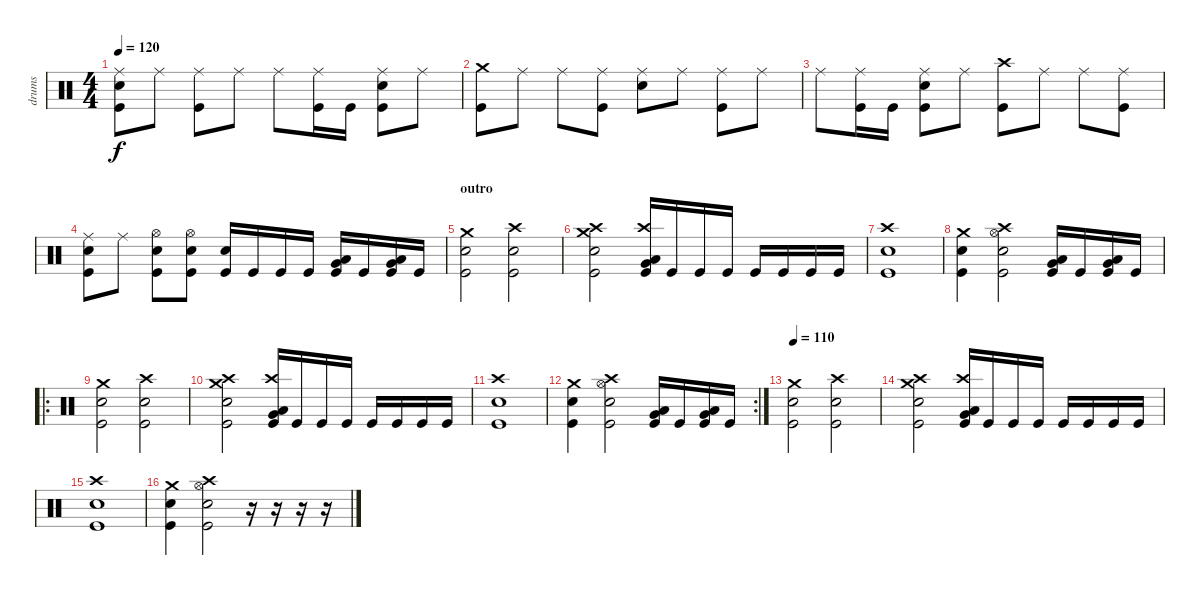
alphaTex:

\track ("drums" "drums") {instrument percussion}
\staff {score}
\articulation defaults
\ts (4 4)
\tempo 120
\clef neutral
\ks c
("Kick (hit)" "Snare (hit) 2" "Ride (middle)").8{dy f} "Ride (middle)".8 ("Kick (hit)" "Ride (middle)").8 "Ride (middle)".8 "Ride (middle)".8 ("Kick (hit)" "Ride (middle)").16 "Kick (hit)".16 ("Kick (hit)" "Snare (hit) 2" "Ride (middle)").8 "Ride (middle)".8 |
("Kick (hit)" "Crash medium (hit)").8 "Ride (middle)".8 "Ride (middle)".8 ("Kick (hit)" "Ride (middle)").8 ("Snare (hit) 2" "Ride (middle)").8 "Ride (middle)".8 ("Kick (hit)" "Ride (middle)").8 "Ride (middle)".8 |
"Ride (middle)".8 ("Kick (hit)" "Ride (middle)").16 "Kick (hit)".16 ("Kick (hit)" "Snare (hit) 2" "Ride (middle)").8 "Ride (middle)".8 ("Kick (hit)" "Crash high (hit)").8 "Ride (middle)".8 "Ride (middle)".8 ("Kick (hit)" "Ride (middle)").8 |
("Kick (hit)" "Snare (hit) 2" "Ride (middle)").8 "Ride (middle)".8 ("Kick (hit)" "Snare (hit) 2" "Hi-Hat (open)").8 ("Kick (hit)" "Snare (hit) 2" "Hi-Hat (open)").8 ("Kick (hit)" "Snare (hit) 2").16 "Kick (hit)".16 "Kick (hit)".16 "Kick (hit)".16 ("Kick (hit)" "Low Tom (hit)" "Very Low Tom (hit)").16 "Kick (hit)".16 ("Kick (hit)" "Low Tom (hit)" "Very Low Tom (hit)").16 "Kick (hit)".16 |
\section ("" "outro")
("Kick (hit)" "Snare (hit) 2" "Crash medium (hit)").2 ("Kick (hit)" "Snare (hit) 2" "Crash high (hit)").2 |
("Kick (hit)" "Snare (hit) 2" "Crash high (hit)" "Crash medium (hit)").2 ("Kick (hit)" "Very Low Tom (hit)" "Low Tom (hit)" "Crash high (hit)").16 "Kick (hit)".16 "Kick (hit)".16 "Kick (hit)".16 "Kick (hit)".16 "Kick (hit)".16 "Kick (hit)".16 "Kick (hit)".16 |
("Kick (hit)" "Snare (hit) 2" "Crash high (hit)").1 |
("Kick (hit)" "Snare (hit) 2" "Crash medium (hit)").4 ("Kick (hit)" "Snare (hit) 2" "Hi-Hat (open)" "Crash high (hit)").2 ("Kick (hit)" "Low Tom (hit)" "Very Low Tom (hit)").16 "Kick (hit)".16 ("Kick (hit)" "Low Floor Tom (hit)" "Very Low Tom (hit)").16 "Kick (hit)".16 |
\ro
("Kick (hit)" "Snare (hit) 2" "Crash medium (hit)").2 ("Kick (hit)" "Snare (hit) 2" "Crash high (hit)").2 |
("Kick (hit)" "Snare (hit) 2" "Crash high (hit)" "Crash medium (hit)").2 ("Kick (hit)" "Very Low Tom (hit)" "Low Tom (hit)" "Crash high (hit)").16 "Kick (hit)".16 "Kick (hit)".16 "Kick (hit)".16 "Kick (hit)".16 "Kick (hit)".16 "Kick (hit)".16 "Kick (hit)".16 |
("Kick (hit)" "Snare (hit) 2" "Crash high (hit)").1 |
\rc 2
("Kick (hit)" "Snare (hit) 2" "Crash medium (hit)").4 ("Kick (hit)" "Snare (hit) 2" "Hi-Hat (open)" "Crash high (hit)").2 ("Kick (hit)" "Low Tom (hit)" "Very Low Tom (hit)").16 "Kick (hit)".16 ("Kick (hit)" "Low Floor Tom (hit)" "Very Low Tom (hit)").16 "Kick (hit)".16 |
\tempo 110
("Kick (hit)" "Snare (hit) 2" "Crash medium (hit)").2 ("Kick (hit)" "Snare (hit) 2" "Crash high (hit)").2 |
("Kick (hit)" "Snare (hit) 2" "Crash high (hit)" "Crash medium (hit)").2 ("Kick (hit)" "Very Low Tom (hit)" "Low Tom (hit)" "Crash high (hit)").16 "Kick (hit)".16 "Kick (hit)".16 "Kick (hit)".16 "Kick (hit)".16 "Kick (hit)".16 "Kick (hit)".16 "Kick (hit)".16 |
("Kick (hit)" "Snare (hit) 2" "Crash high (hit)").1 |
("Kick (hit)" "Snare (hit) 2" "Crash medium (hit)").4 ("Kick (hit)" "Snare (hit) 2" "Hi-Hat (open)" "Crash high (hit)").2 r.16 r.16 r.16 r.16
